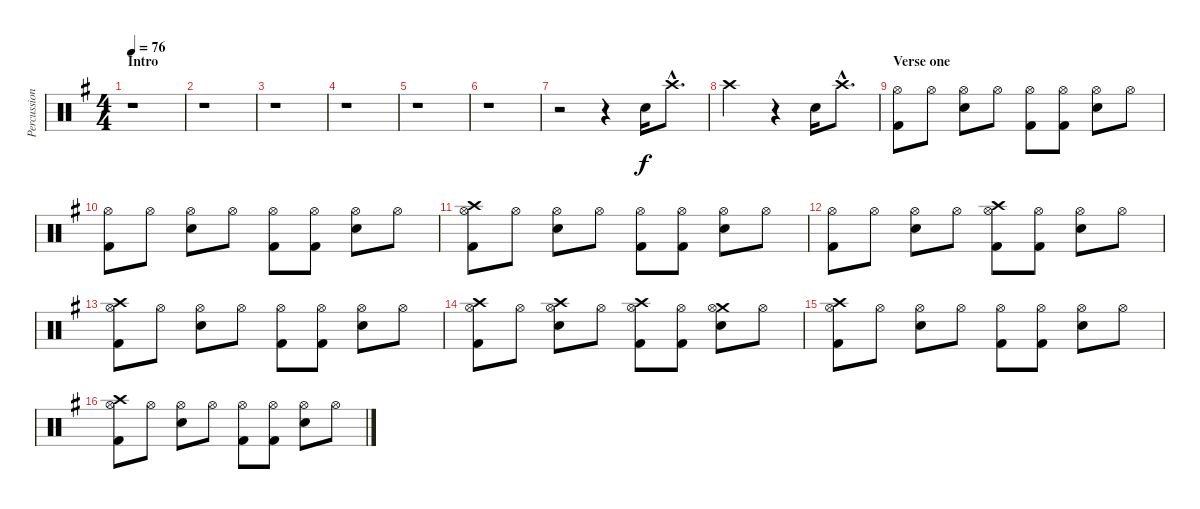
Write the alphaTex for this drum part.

\track ("Percussions" "Percussion") {instrument percussion}
\staff {score}
\articulation defaults
\ts (4 4)
\section ("" "Intro")
\tempo 76
\clef neutral
\ks g
r.1{dy f} |
r.1 |
r.1 |
r.1 |
r.1 |
r.1 |
r.2 r.4 "Snare (hit) 2".16 "Crash high (hit)"{hac}.8{d} |
"Crash high (hit)".2 r.4 "Snare (hit) 2".16 "Crash high (hit)"{hac}.8{d} |
\section ("" "Verse one")
("Kick (hit) 2" "Hi-Hat (open)").8 "Hi-Hat (open)".8 ("Hi-Hat (open)" "Snare (hit) 2").8 "Hi-Hat (open)".8 ("Kick (hit) 2" "Hi-Hat (open)").8 ("Kick (hit) 2" "Hi-Hat (open)").8 ("Hi-Hat (open)" "Snare (hit) 2").8 "Hi-Hat (open)".8 |
("Kick (hit) 2" "Hi-Hat (open)").8 "Hi-Hat (open)".8 ("Hi-Hat (open)" "Snare (hit) 2").8 "Hi-Hat (open)".8 ("Kick (hit) 2" "Hi-Hat (open)").8 ("Kick (hit) 2" "Hi-Hat (open)").8 ("Hi-Hat (open)" "Snare (hit) 2").8 "Hi-Hat (open)".8 |
("Crash high (hit)" "Kick (hit) 2" "Hi-Hat (open)").8 "Hi-Hat (open)".8 ("Hi-Hat (open)" "Snare (hit) 2").8 "Hi-Hat (open)".8 ("Kick (hit) 2" "Hi-Hat (open)").8 ("Kick (hit) 2" "Hi-Hat (open)").8 ("Hi-Hat (open)" "Snare (hit) 2").8 "Hi-Hat (open)".8 |
("Kick (hit) 2" "Hi-Hat (open)").8 "Hi-Hat (open)".8 ("Hi-Hat (open)" "Snare (hit) 2").8 "Hi-Hat (open)".8 ("Crash high (hit)" "Kick (hit) 2" "Hi-Hat (open)").8 ("Kick (hit) 2" "Hi-Hat (open)").8 ("Hi-Hat (open)" "Snare (hit) 2").8 "Hi-Hat (open)".8 |
("Crash high (hit)" "Kick (hit) 2" "Hi-Hat (open)").8 "Hi-Hat (open)".8 ("Hi-Hat (open)" "Snare (hit) 2").8 "Hi-Hat (open)".8 ("Kick (hit) 2" "Hi-Hat (open)").8 ("Kick (hit) 2" "Hi-Hat (open)").8 ("Hi-Hat (open)" "Snare (hit) 2").8 "Hi-Hat (open)".8 |
("Crash high (hit)" "Kick (hit) 2" "Hi-Hat (open)").8 "Hi-Hat (open)".8 ("Crash high (hit)" "Hi-Hat (open)" "Snare (hit) 2").8 "Hi-Hat (open)".8 ("Crash high (hit)" "Kick (hit) 2" "Hi-Hat (open)").8 ("Kick (hit) 2" "Hi-Hat (open)").8 ("Crash medium (hit)" "Hi-Hat (open)" "Snare (hit) 2").8 "Hi-Hat (open)".8 |
("Crash high (hit)" "Kick (hit) 2" "Hi-Hat (open)").8 "Hi-Hat (open)".8 ("Hi-Hat (open)" "Snare (hit) 2").8 "Hi-Hat (open)".8 ("Kick (hit) 2" "Hi-Hat (open)").8 ("Kick (hit) 2" "Hi-Hat (open)").8 ("Hi-Hat (open)" "Snare (hit) 2").8 "Hi-Hat (open)".8 |
("Crash high (hit)" "Kick (hit) 2" "Hi-Hat (open)").8 "Hi-Hat (open)".8 ("Hi-Hat (open)" "Snare (hit) 2").8 "Hi-Hat (open)".8 ("Kick (hit) 2" "Hi-Hat (open)").8 ("Kick (hit) 2" "Hi-Hat (open)").8 ("Hi-Hat (open)" "Snare (hit) 2").8 "Hi-Hat (open)".8
